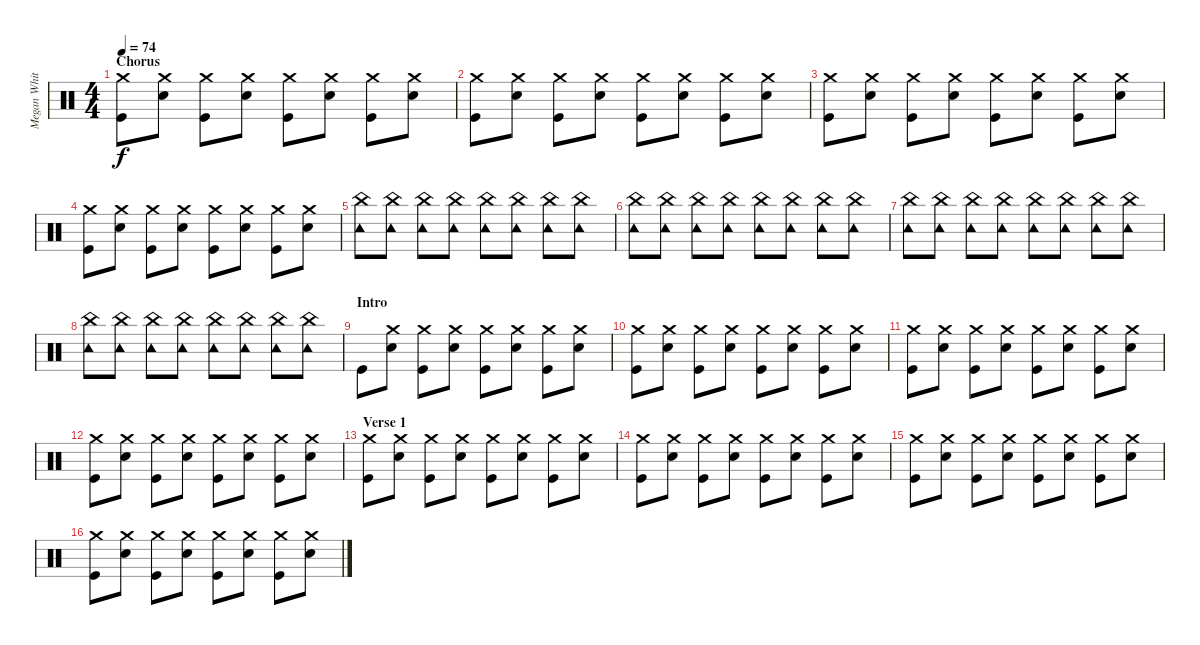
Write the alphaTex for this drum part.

\track ("Megan White" "Megan Whit") {instrument percussion}
\staff {score}
\articulation defaults
\ts (4 4)
\section ("" "Chorus")
\tempo 74
\clef neutral
\ks c
("Crash medium (hit)" "Kick (hit)").8{dy f} ("Crash medium (hit)" "Snare (hit) 2").8 ("Crash medium (hit)" "Kick (hit)").8 ("Crash medium (hit)" "Snare (hit) 2").8 ("Crash medium (hit)" "Kick (hit)").8 ("Crash medium (hit)" "Snare (hit) 2").8 ("Crash medium (hit)" "Kick (hit)").8 ("Crash medium (hit)" "Snare (hit) 2").8 |
("Crash medium (hit)" "Kick (hit)").8 ("Crash medium (hit)" "Snare (hit) 2").8 ("Crash medium (hit)" "Kick (hit)").8 ("Crash medium (hit)" "Snare (hit) 2").8 ("Crash medium (hit)" "Kick (hit)").8 ("Crash medium (hit)" "Snare (hit) 2").8 ("Crash medium (hit)" "Kick (hit)").8 ("Crash medium (hit)" "Snare (hit) 2").8 |
("Crash medium (hit)" "Kick (hit)").8 ("Crash medium (hit)" "Snare (hit) 2").8 ("Crash medium (hit)" "Kick (hit)").8 ("Crash medium (hit)" "Snare (hit) 2").8 ("Crash medium (hit)" "Kick (hit)").8 ("Crash medium (hit)" "Snare (hit) 2").8 ("Crash medium (hit)" "Kick (hit)").8 ("Crash medium (hit)" "Snare (hit) 2").8 |
("Crash medium (hit)" "Kick (hit)").8 ("Crash medium (hit)" "Snare (hit) 2").8 ("Crash medium (hit)" "Kick (hit)").8 ("Crash medium (hit)" "Snare (hit) 2").8 ("Crash medium (hit)" "Kick (hit)").8 ("Crash medium (hit)" "Snare (hit) 2").8 ("Crash medium (hit)" "Kick (hit)").8 ("Crash medium (hit)" "Snare (hit) 2").8 |
("China (hit)" "Tambourine (hit)").8 ("China (hit)" "Tambourine (hit)").8 ("China (hit)" "Tambourine (hit)").8 ("China (hit)" "Tambourine (hit)").8 ("China (hit)" "Tambourine (hit)").8 ("China (hit)" "Tambourine (hit)").8 ("China (hit)" "Tambourine (hit)").8 ("China (hit)" "Tambourine (hit)").8 |
("China (hit)" "Tambourine (hit)").8 ("China (hit)" "Tambourine (hit)").8 ("China (hit)" "Tambourine (hit)").8 ("China (hit)" "Tambourine (hit)").8 ("China (hit)" "Tambourine (hit)").8 ("China (hit)" "Tambourine (hit)").8 ("China (hit)" "Tambourine (hit)").8 ("China (hit)" "Tambourine (hit)").8 |
("China (hit)" "Tambourine (hit)").8 ("China (hit)" "Tambourine (hit)").8 ("China (hit)" "Tambourine (hit)").8 ("China (hit)" "Tambourine (hit)").8 ("China (hit)" "Tambourine (hit)").8 ("China (hit)" "Tambourine (hit)").8 ("China (hit)" "Tambourine (hit)").8 ("China (hit)" "Tambourine (hit)").8 |
("China (hit)" "Tambourine (hit)").8 ("China (hit)" "Tambourine (hit)").8 ("China (hit)" "Tambourine (hit)").8 ("China (hit)" "Tambourine (hit)").8 ("China (hit)" "Tambourine (hit)").8 ("China (hit)" "Tambourine (hit)").8 ("China (hit)" "Tambourine (hit)").8 ("China (hit)" "Tambourine (hit)").8 |
\section ("" "Intro")
"Kick (hit)".8 ("Crash medium (hit)" "Snare (hit) 2").8 ("Crash medium (hit)" "Kick (hit)").8 ("Crash medium (hit)" "Snare (hit) 2").8 ("Crash medium (hit)" "Kick (hit)").8 ("Crash medium (hit)" "Snare (hit) 2").8 ("Crash medium (hit)" "Kick (hit)").8 ("Crash medium (hit)" "Snare (hit) 2").8 |
("Crash medium (hit)" "Kick (hit)").8 ("Crash medium (hit)" "Snare (hit) 2").8 ("Crash medium (hit)" "Kick (hit)").8 ("Crash medium (hit)" "Snare (hit) 2").8 ("Crash medium (hit)" "Kick (hit)").8 ("Crash medium (hit)" "Snare (hit) 2").8 ("Crash medium (hit)" "Kick (hit)").8 ("Crash medium (hit)" "Snare (hit) 2").8 |
("Crash medium (hit)" "Kick (hit)").8 ("Crash medium (hit)" "Snare (hit) 2").8 ("Crash medium (hit)" "Kick (hit)").8 ("Crash medium (hit)" "Snare (hit) 2").8 ("Crash medium (hit)" "Kick (hit)").8 ("Crash medium (hit)" "Snare (hit) 2").8 ("Crash medium (hit)" "Kick (hit)").8 ("Crash medium (hit)" "Snare (hit) 2").8 |
("Crash medium (hit)" "Kick (hit)").8 ("Crash medium (hit)" "Snare (hit) 2").8 ("Crash medium (hit)" "Kick (hit)").8 ("Crash medium (hit)" "Snare (hit) 2").8 ("Crash medium (hit)" "Kick (hit)").8 ("Crash medium (hit)" "Snare (hit) 2").8 ("Crash medium (hit)" "Kick (hit)").8 ("Crash medium (hit)" "Snare (hit) 2").8 |
\section ("" "Verse 1")
("Crash medium (hit)" "Kick (hit)").8 ("Crash medium (hit)" "Snare (hit) 2").8 ("Crash medium (hit)" "Kick (hit)").8 ("Crash medium (hit)" "Snare (hit) 2").8 ("Crash medium (hit)" "Kick (hit)").8 ("Crash medium (hit)" "Snare (hit) 2").8 ("Crash medium (hit)" "Kick (hit)").8 ("Crash medium (hit)" "Snare (hit) 2").8 |
("Crash medium (hit)" "Kick (hit)").8 ("Crash medium (hit)" "Snare (hit) 2").8 ("Crash medium (hit)" "Kick (hit)").8 ("Crash medium (hit)" "Snare (hit) 2").8 ("Crash medium (hit)" "Kick (hit)").8 ("Crash medium (hit)" "Snare (hit) 2").8 ("Crash medium (hit)" "Kick (hit)").8 ("Crash medium (hit)" "Snare (hit) 2").8 |
("Crash medium (hit)" "Kick (hit)").8 ("Crash medium (hit)" "Snare (hit) 2").8 ("Crash medium (hit)" "Kick (hit)").8 ("Crash medium (hit)" "Snare (hit) 2").8 ("Crash medium (hit)" "Kick (hit)").8 ("Crash medium (hit)" "Snare (hit) 2").8 ("Crash medium (hit)" "Kick (hit)").8 ("Crash medium (hit)" "Snare (hit) 2").8 |
("Crash medium (hit)" "Kick (hit)").8 ("Crash medium (hit)" "Snare (hit) 2").8 ("Crash medium (hit)" "Kick (hit)").8 ("Crash medium (hit)" "Snare (hit) 2").8 ("Crash medium (hit)" "Kick (hit)").8 ("Crash medium (hit)" "Snare (hit) 2").8 ("Crash medium (hit)" "Kick (hit)").8 ("Crash medium (hit)" "Snare (hit) 2").8
